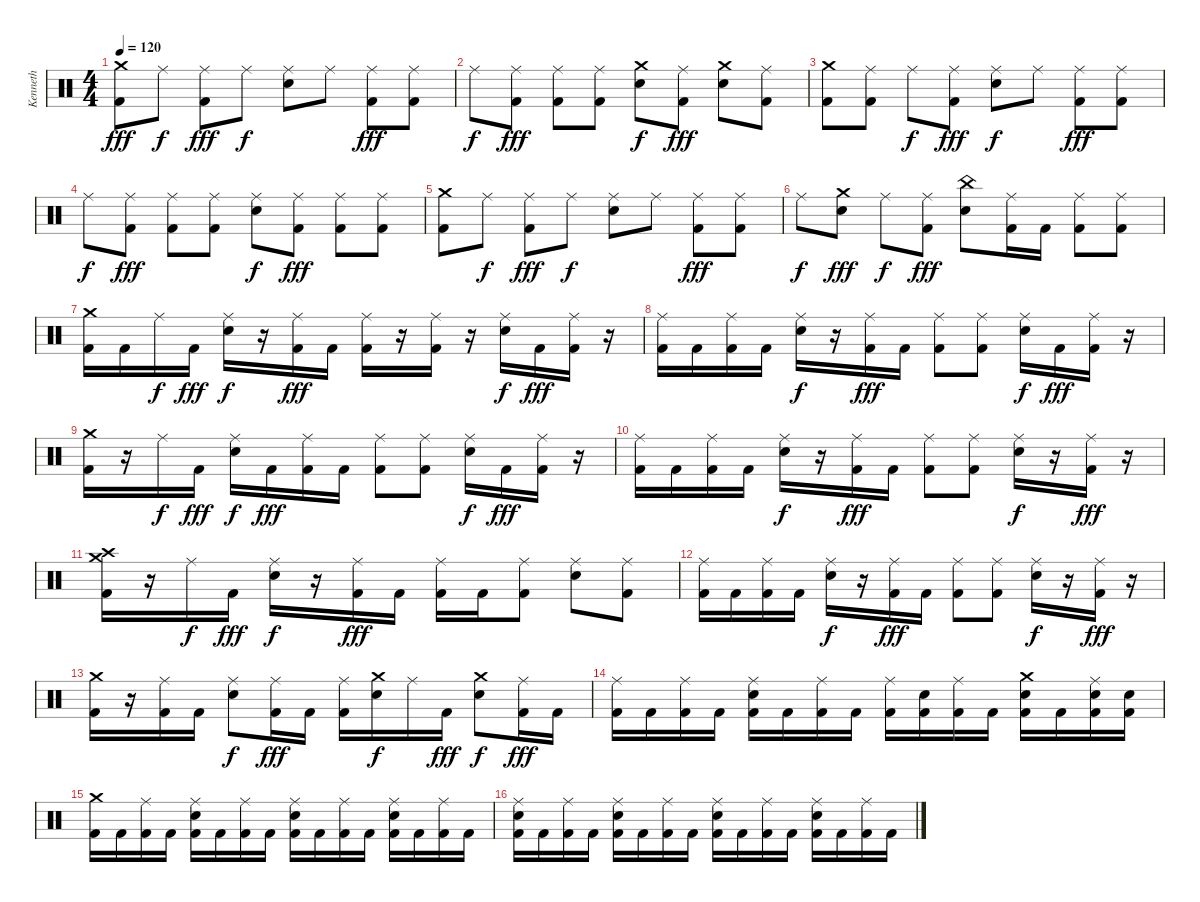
\track ("Kenneth" "Kenneth") {instrument percussion}
\staff {score}
\articulation defaults
\ts (4 4)
\tempo 120
\clef neutral
\ks c
("Crash medium (hit)" "Kick (hit) 2").8{dy fff} "Ride (middle)".8{dy f} ("Ride (middle)" "Kick (hit) 2").8{dy fff} "Ride (middle)".8{dy f} ("Ride (middle)" "Snare (hit) 2").8 "Ride (middle)".8 ("Ride (middle)" "Kick (hit) 2").8{dy fff} ("Ride (middle)" "Kick (hit) 2").8 |
"Ride (middle)".8{dy f} ("Ride (middle)" "Kick (hit) 2").8{dy fff} ("Ride (middle)" "Kick (hit) 2").8 ("Ride (middle)" "Kick (hit) 2").8 ("Crash medium (hit)" "Snare (hit) 2").8{dy f} ("Ride (middle)" "Kick (hit) 2").8{dy fff} ("Crash medium (hit)" "Snare (hit) 2").8 ("Ride (middle)" "Kick (hit) 2").8 |
("Crash medium (hit)" "Kick (hit) 2").8 ("Ride (middle)" "Kick (hit) 2").8 "Ride (middle)".8{dy f} ("Ride (middle)" "Kick (hit) 2").8{dy fff} ("Ride (middle)" "Snare (hit) 2").8{dy f} "Ride (middle)".8 ("Ride (middle)" "Kick (hit) 2").8{dy fff} ("Ride (middle)" "Kick (hit) 2").8 |
"Ride (middle)".8{dy f} ("Ride (middle)" "Kick (hit) 2").8{dy fff} ("Ride (middle)" "Kick (hit) 2").8 ("Ride (middle)" "Kick (hit) 2").8 ("Ride (middle)" "Snare (hit) 2").8{dy f} ("Ride (middle)" "Kick (hit) 2").8{dy fff} ("Ride (middle)" "Kick (hit) 2").8 ("Ride (middle)" "Kick (hit) 2").8 |
("Crash medium (hit)" "Kick (hit) 2").8 "Ride (middle)".8{dy f} ("Ride (middle)" "Kick (hit) 2").8{dy fff} "Ride (middle)".8{dy f} ("Ride (middle)" "Snare (hit) 2").8 "Ride (middle)".8 ("Ride (middle)" "Kick (hit) 2").8{dy fff} ("Ride (middle)" "Kick (hit) 2").8 |
"Ride (middle)".8{dy f} ("Crash medium (hit)" "Snare (hit) 2").8{dy fff} "Ride (middle)".8{dy f} ("Ride (middle)" "Kick (hit) 2").8{dy fff} ("China (hit)" "Snare (hit) 2").8 ("Ride (middle)" "Kick (hit) 2").16 "Kick (hit) 2".16 ("Ride (middle)" "Kick (hit) 2").8 ("Ride (middle)" "Kick (hit) 2").8 |
("Crash medium (hit)" "Kick (hit) 2").16 "Kick (hit) 2".16 "Ride (middle)".16{dy f} "Kick (hit) 2".16{dy fff} ("Ride (middle)" "Snare (hit) 2").16{dy f} r.16 ("Ride (middle)" "Kick (hit) 2").16{dy fff} "Kick (hit) 2".16 ("Ride (middle)" "Kick (hit) 2").16 r.16 ("Ride (middle)" "Kick (hit) 2").16 r.16 ("Ride (middle)" "Snare (hit) 2").16{dy f} "Kick (hit) 2".16{dy fff} ("Ride (middle)" "Kick (hit) 2").16 r.16 |
("Ride (middle)" "Kick (hit) 2").16 "Kick (hit) 2".16 ("Ride (middle)" "Kick (hit) 2").16 "Kick (hit) 2".16 ("Ride (middle)" "Snare (hit) 2").16{dy f} r.16 ("Ride (middle)" "Kick (hit) 2").16{dy fff} "Kick (hit) 2".16 ("Ride (middle)" "Kick (hit) 2").8 ("Ride (middle)" "Kick (hit) 2").8 ("Ride (middle)" "Snare (hit) 2").16{dy f} "Kick (hit) 2".16{dy fff} ("Ride (middle)" "Kick (hit) 2").16 r.16 |
("Crash medium (hit)" "Kick (hit) 2").16 r.16 "Ride (middle)".16{dy f} "Kick (hit) 2".16{dy fff} ("Ride (middle)" "Snare (hit) 2").16{dy f} "Kick (hit) 2".16{dy fff} ("Ride (middle)" "Kick (hit) 2").16 "Kick (hit) 2".16 ("Ride (middle)" "Kick (hit) 2").8 ("Ride (middle)" "Kick (hit) 2").8 ("Ride (middle)" "Snare (hit) 2").16{dy f} "Kick (hit) 2".16{dy fff} ("Ride (middle)" "Kick (hit) 2").16 r.16 |
("Ride (middle)" "Kick (hit) 2").16 "Kick (hit) 2".16 ("Ride (middle)" "Kick (hit) 2").16 "Kick (hit) 2".16 ("Ride (middle)" "Snare (hit) 2").16{dy f} r.16 ("Ride (middle)" "Kick (hit) 2").16{dy fff} "Kick (hit) 2".16 ("Ride (middle)" "Kick (hit) 2").8 ("Ride (middle)" "Kick (hit) 2").8 ("Ride (middle)" "Snare (hit) 2").16{dy f} r.16 ("Ride (middle)" "Kick (hit) 2").16{dy fff} r.16 |
("Crash medium (hit)" "Crash high (hit)" "Kick (hit) 2").16 r.16 "Ride (middle)".16{dy f} "Kick (hit) 2".16{dy fff} ("Ride (middle)" "Snare (hit) 2").16{dy f} r.16 ("Ride (middle)" "Kick (hit) 2").16{dy fff} "Kick (hit) 2".16 ("Ride (middle)" "Kick (hit) 2").16 "Kick (hit) 2".16 ("Ride (middle)" "Kick (hit) 2").8 ("Ride (middle)" "Snare (hit) 2").8 ("Ride (middle)" "Kick (hit) 2").8 |
("Ride (middle)" "Kick (hit) 2").16 "Kick (hit) 2".16 ("Ride (middle)" "Kick (hit) 2").16 "Kick (hit) 2".16 ("Ride (middle)" "Snare (hit) 2").16{dy f} r.16 ("Ride (middle)" "Kick (hit) 2").16{dy fff} "Kick (hit) 2".16 ("Ride (middle)" "Kick (hit) 2").8 ("Ride (middle)" "Kick (hit) 2").8 ("Ride (middle)" "Snare (hit) 2").16{dy f} r.16 ("Ride (middle)" "Kick (hit) 2").16{dy fff} r.16 |
("Crash medium (hit)" "Kick (hit) 2").16 r.16 ("Ride (middle)" "Kick (hit) 2").16 "Kick (hit) 2".16 ("Ride (middle)" "Snare (hit) 2").8{dy f} ("Ride (middle)" "Kick (hit) 2").16{dy fff} "Kick (hit) 2".16 ("Ride (middle)" "Kick (hit) 2").16 ("Crash medium (hit)" "Snare (hit) 2").16{dy f} "Ride (middle)".16 "Kick (hit) 2".16{dy fff} ("Crash medium (hit)" "Snare (hit) 2").8{dy f} ("Ride (middle)" "Kick (hit) 2").16{dy fff} "Kick (hit) 2".16 |
("Ride (middle)" "Kick (hit) 2").16 "Kick (hit) 2".16 ("Ride (middle)" "Kick (hit) 2").16 "Kick (hit) 2".16 ("Ride (middle)" "Snare (hit) 2" "Kick (hit) 2").16 "Kick (hit) 2".16 ("Ride (middle)" "Kick (hit) 2").16 "Kick (hit) 2".16 ("Ride (middle)" "Kick (hit) 2").16 ("Snare (hit) 2" "Kick (hit) 2").16 ("Ride (middle)" "Kick (hit) 2").16 "Kick (hit) 2".16 ("Crash medium (hit)" "Snare (hit) 2" "Kick (hit) 2").16 "Kick (hit) 2".16 ("Ride (middle)" "Snare (hit) 2" "Kick (hit) 2").16 ("Snare (hit) 2" "Kick (hit) 2").16 |
("Crash medium (hit)" "Kick (hit) 2").16 "Kick (hit) 2".16 ("Ride (middle)" "Kick (hit) 2").16 "Kick (hit) 2".16 ("Ride (middle)" "Snare (hit) 2" "Kick (hit) 2").16 "Kick (hit) 2".16 ("Ride (middle)" "Kick (hit) 2").16 "Kick (hit) 2".16 ("Ride (middle)" "Snare (hit) 2" "Kick (hit) 2").16 "Kick (hit) 2".16 ("Ride (middle)" "Kick (hit) 2").16 "Kick (hit) 2".16 ("Ride (middle)" "Snare (hit) 2" "Kick (hit) 2").16 "Kick (hit) 2".16 ("Ride (middle)" "Kick (hit) 2").16 "Kick (hit) 2".16 |
("Ride (middle)" "Snare (hit) 2" "Kick (hit) 2").16 "Kick (hit) 2".16 ("Ride (middle)" "Kick (hit) 2").16 "Kick (hit) 2".16 ("Ride (middle)" "Snare (hit) 2" "Kick (hit) 2").16 "Kick (hit) 2".16 ("Ride (middle)" "Kick (hit) 2").16 "Kick (hit) 2".16 ("Ride (middle)" "Snare (hit) 2" "Kick (hit) 2").16 "Kick (hit) 2".16 ("Ride (middle)" "Kick (hit) 2").16 "Kick (hit) 2".16 ("Ride (middle)" "Snare (hit) 2" "Kick (hit) 2").16 "Kick (hit) 2".16 ("Ride (middle)" "Kick (hit) 2").16 "Kick (hit) 2".16
